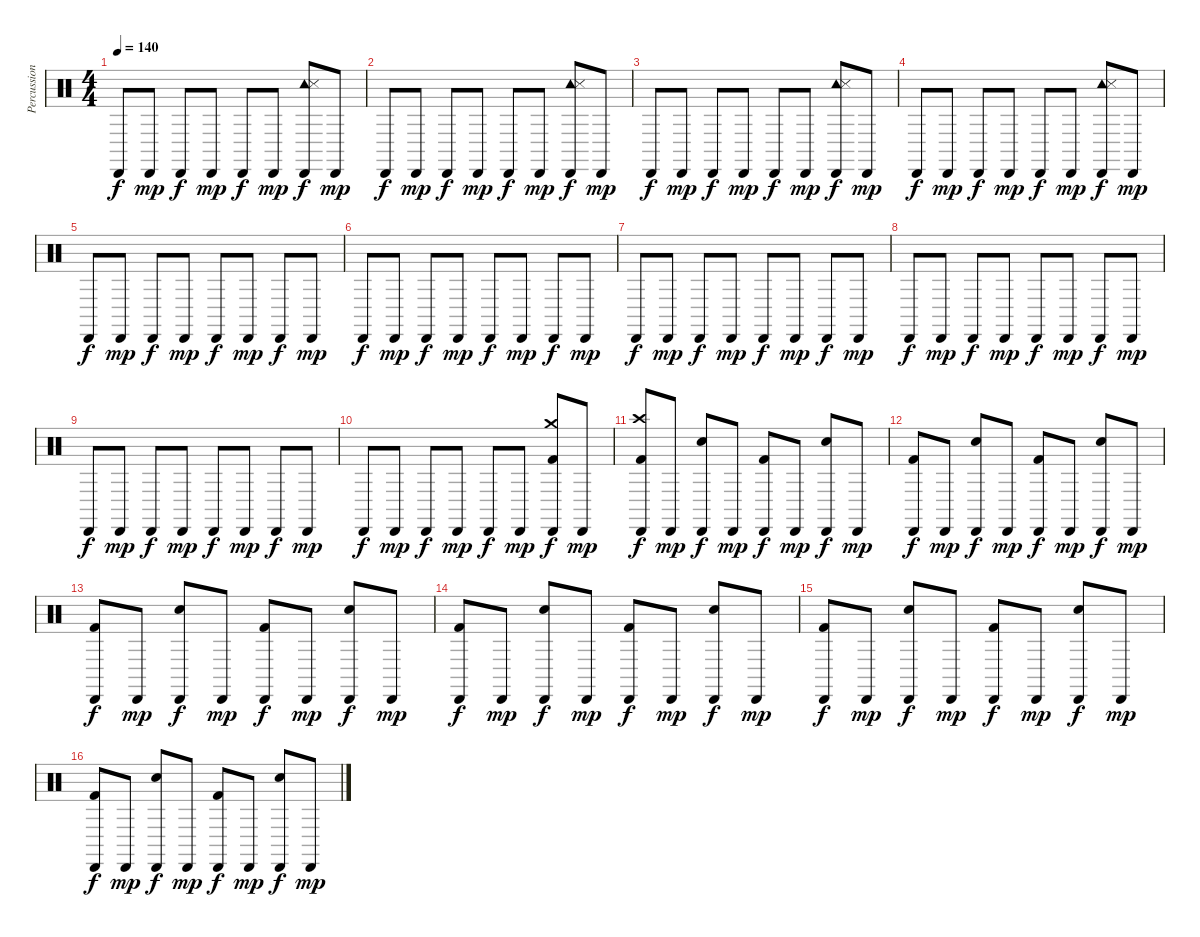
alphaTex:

\track ("Percussion" "Percussion") {instrument percussion}
\staff {score}
\articulation defaults
\ts (4 4)
\tempo 140
\clef neutral
\ks c "Cabasa (hit)".8{dy f} "Cabasa (hit)".8{dy mp} "Cabasa (hit)".8{dy f} "Cabasa (hit)".8{dy mp} "Cabasa (hit)".8{dy f} "Cabasa (hit)".8{dy mp}
("Cabasa (hit)" "Tambourine (hit)" "Metronome (hit)").8{dy f} "Cabasa (hit)".8{dy mp} |
"Cabasa (hit)".8{dy f} "Cabasa (hit)".8{dy mp} "Cabasa (hit)".8{dy f} "Cabasa (hit)".8{dy mp} "Cabasa (hit)".8{dy f} "Cabasa (hit)".8{dy mp} ("Cabasa (hit)" "Tambourine (hit)" "Metronome (hit)").8{dy f} "Cabasa (hit)".8{dy mp} |
"Cabasa (hit)".8{dy f} "Cabasa (hit)".8{dy mp} "Cabasa (hit)".8{dy f} "Cabasa (hit)".8{dy mp} "Cabasa (hit)".8{dy f} "Cabasa (hit)".8{dy mp} ("Cabasa (hit)" "Tambourine (hit)" "Metronome (hit)").8{dy f} "Cabasa (hit)".8{dy mp} |
"Cabasa (hit)".8{dy f} "Cabasa (hit)".8{dy mp} "Cabasa (hit)".8{dy f} "Cabasa (hit)".8{dy mp} "Cabasa (hit)".8{dy f} "Cabasa (hit)".8{dy mp} ("Cabasa (hit)" "Tambourine (hit)" "Metronome (hit)").8{dy f} "Cabasa (hit)".8{dy mp} |
"Cabasa (hit)".8{dy f} "Cabasa (hit)".8{dy mp} "Cabasa (hit)".8{dy f} "Cabasa (hit)".8{dy mp} "Cabasa (hit)".8{dy f} "Cabasa (hit)".8{dy mp} "Cabasa (hit)".8{dy f} "Cabasa (hit)".8{dy mp} |
"Cabasa (hit)".8{dy f} "Cabasa (hit)".8{dy mp} "Cabasa (hit)".8{dy f} "Cabasa (hit)".8{dy mp} "Cabasa (hit)".8{dy f} "Cabasa (hit)".8{dy mp} "Cabasa (hit)".8{dy f} "Cabasa (hit)".8{dy mp} |
"Cabasa (hit)".8{dy f} "Cabasa (hit)".8{dy mp} "Cabasa (hit)".8{dy f} "Cabasa (hit)".8{dy mp} "Cabasa (hit)".8{dy f} "Cabasa (hit)".8{dy mp} "Cabasa (hit)".8{dy f} "Cabasa (hit)".8{dy mp} |
"Cabasa (hit)".8{dy f} "Cabasa (hit)".8{dy mp} "Cabasa (hit)".8{dy f} "Cabasa (hit)".8{dy mp} "Cabasa (hit)".8{dy f} "Cabasa (hit)".8{dy mp} "Cabasa (hit)".8{dy f} "Cabasa (hit)".8{dy mp} |
"Cabasa (hit)".8{dy f} "Cabasa (hit)".8{dy mp} "Cabasa (hit)".8{dy f} "Cabasa (hit)".8{dy mp} "Cabasa (hit)".8{dy f} "Cabasa (hit)".8{dy mp} "Cabasa (hit)".8{dy f} "Cabasa (hit)".8{dy mp} |
"Cabasa (hit)".8{dy f} "Cabasa (hit)".8{dy mp} "Cabasa (hit)".8{dy f} "Cabasa (hit)".8{dy mp} "Cabasa (hit)".8{dy f} "Cabasa (hit)".8{dy mp} ("Cabasa (hit)" "Crash medium (hit)" "Kick (hit) 2").8{dy f} "Cabasa (hit)".8{dy mp} |
("Cabasa (hit)" "Crash high (hit)" "Kick (hit) 2").8{dy f} "Cabasa (hit)".8{dy mp} ("Cabasa (hit)" "Electric Snare (hit)").8{dy f} "Cabasa (hit)".8{dy mp} ("Cabasa (hit)" "Kick (hit) 2").8{dy f} "Cabasa (hit)".8{dy mp} ("Cabasa (hit)" "Electric Snare (hit)").8{dy f} "Cabasa (hit)".8{dy mp} |
("Cabasa (hit)" "Kick (hit) 2").8{dy f} "Cabasa (hit)".8{dy mp} ("Cabasa (hit)" "Electric Snare (hit)").8{dy f} "Cabasa (hit)".8{dy mp} ("Cabasa (hit)" "Kick (hit) 2").8{dy f} "Cabasa (hit)".8{dy mp} ("Cabasa (hit)" "Electric Snare (hit)").8{dy f} "Cabasa (hit)".8{dy mp} |
("Cabasa (hit)" "Kick (hit) 2").8{dy f} "Cabasa (hit)".8{dy mp} ("Cabasa (hit)" "Electric Snare (hit)").8{dy f} "Cabasa (hit)".8{dy mp} ("Cabasa (hit)" "Kick (hit) 2").8{dy f} "Cabasa (hit)".8{dy mp} ("Cabasa (hit)" "Electric Snare (hit)").8{dy f} "Cabasa (hit)".8{dy mp} |
("Cabasa (hit)" "Kick (hit) 2").8{dy f} "Cabasa (hit)".8{dy mp} ("Cabasa (hit)" "Electric Snare (hit)").8{dy f} "Cabasa (hit)".8{dy mp} ("Cabasa (hit)" "Kick (hit) 2").8{dy f} "Cabasa (hit)".8{dy mp} ("Cabasa (hit)" "Electric Snare (hit)").8{dy f} "Cabasa (hit)".8{dy mp} |
("Cabasa (hit)" "Kick (hit) 2").8{dy f} "Cabasa (hit)".8{dy mp} ("Cabasa (hit)" "Electric Snare (hit)").8{dy f} "Cabasa (hit)".8{dy mp} ("Cabasa (hit)" "Kick (hit) 2").8{dy f} "Cabasa (hit)".8{dy mp} ("Cabasa (hit)" "Electric Snare (hit)").8{dy f} "Cabasa (hit)".8{dy mp} |
("Cabasa (hit)" "Kick (hit) 2").8{dy f} "Cabasa (hit)".8{dy mp} ("Cabasa (hit)" "Electric Snare (hit)").8{dy f} "Cabasa (hit)".8{dy mp} ("Cabasa (hit)" "Kick (hit) 2").8{dy f} "Cabasa (hit)".8{dy mp} ("Cabasa (hit)" "Electric Snare (hit)").8{dy f} "Cabasa (hit)".8{dy mp}
